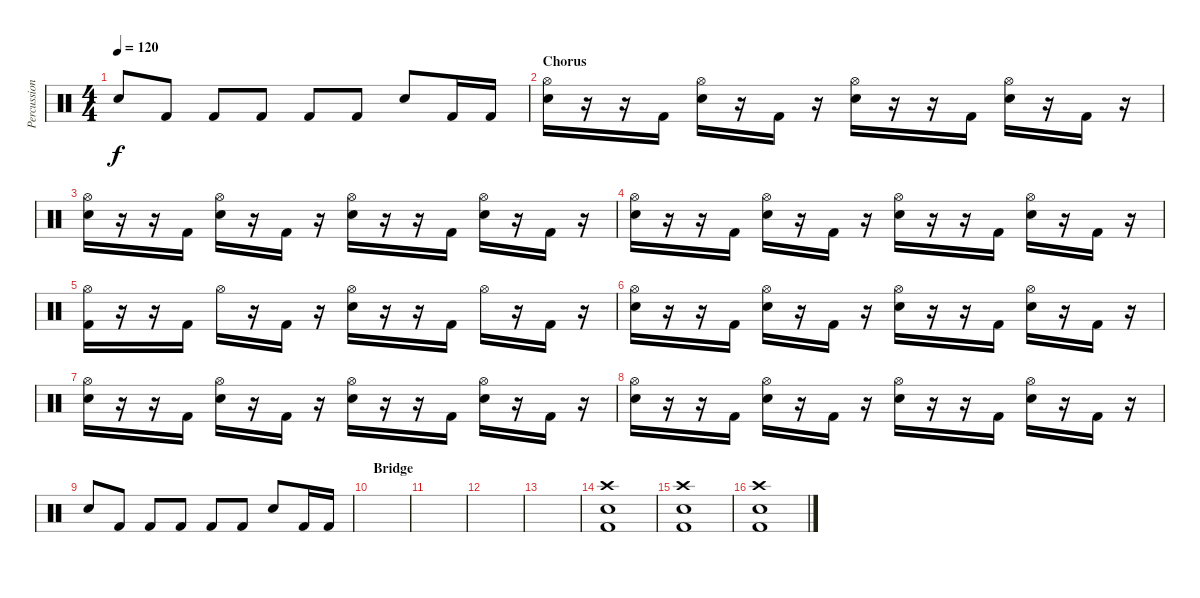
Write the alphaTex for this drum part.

\track ("Percussion" "Percussion") {instrument percussion}
\staff {score}
\articulation defaults
\ts (4 4)
\tempo 120
\clef neutral
\ks c "Electric Snare (hit)".8{dy f} "Kick (hit) 2".8 "Kick (hit) 2".8 "Kick (hit) 2".8 "Kick (hit) 2".8 "Kick (hit) 2".8 "Electric Snare (hit)".8 "Kick (hit) 2".16 "Kick (hit) 2".16
|
\section ("" "Chorus")
("Hi-Hat (open)" "Electric Snare (hit)").16 r.16 r.16 "Kick (hit) 2".16 ("Hi-Hat (open)" "Electric Snare (hit)").16 r.16 "Kick (hit) 2".16 r.16 ("Hi-Hat (open)" "Electric Snare (hit)").16 r.16 r.16 "Kick (hit) 2".16 ("Hi-Hat (open)" "Electric Snare (hit)").16 r.16 "Kick (hit) 2".16 r.16 |
("Hi-Hat (open)" "Electric Snare (hit)").16 r.16 r.16 "Kick (hit) 2".16 ("Hi-Hat (open)" "Electric Snare (hit)").16 r.16 "Kick (hit) 2".16 r.16 ("Hi-Hat (open)" "Electric Snare (hit)").16 r.16 r.16 "Kick (hit) 2".16 ("Hi-Hat (open)" "Electric Snare (hit)").16 r.16 "Kick (hit) 2".16 r.16 |
("Hi-Hat (open)" "Electric Snare (hit)").16 r.16 r.16 "Kick (hit) 2".16 ("Hi-Hat (open)" "Electric Snare (hit)").16 r.16 "Kick (hit) 2".16 r.16 ("Hi-Hat (open)" "Electric Snare (hit)").16 r.16 r.16 "Kick (hit) 2".16 ("Hi-Hat (open)" "Electric Snare (hit)").16 r.16 "Kick (hit) 2".16 r.16 |
("Hi-Hat (open)" "Kick (hit) 2").16 r.16 r.16 "Kick (hit) 2".16 "Hi-Hat (open)".16 r.16 "Kick (hit) 2".16 r.16 ("Hi-Hat (open)" "Electric Snare (hit)").16 r.16 r.16 "Kick (hit) 2".16 "Hi-Hat (open)".16 r.16 "Kick (hit) 2".16 r.16 |
("Hi-Hat (open)" "Electric Snare (hit)").16 r.16 r.16 "Kick (hit) 2".16 ("Hi-Hat (open)" "Electric Snare (hit)").16 r.16 "Kick (hit) 2".16 r.16 ("Hi-Hat (open)" "Electric Snare (hit)").16 r.16 r.16 "Kick (hit) 2".16 ("Hi-Hat (open)" "Electric Snare (hit)").16 r.16 "Kick (hit) 2".16 r.16 |
("Hi-Hat (open)" "Electric Snare (hit)").16 r.16 r.16 "Kick (hit) 2".16 ("Hi-Hat (open)" "Electric Snare (hit)").16 r.16 "Kick (hit) 2".16 r.16 ("Hi-Hat (open)" "Electric Snare (hit)").16 r.16 r.16 "Kick (hit) 2".16 ("Hi-Hat (open)" "Electric Snare (hit)").16 r.16 "Kick (hit) 2".16 r.16 |
("Hi-Hat (open)" "Electric Snare (hit)").16 r.16 r.16 "Kick (hit) 2".16 ("Hi-Hat (open)" "Electric Snare (hit)").16 r.16 "Kick (hit) 2".16 r.16 ("Hi-Hat (open)" "Electric Snare (hit)").16 r.16 r.16 "Kick (hit) 2".16 ("Hi-Hat (open)" "Electric Snare (hit)").16 r.16 "Kick (hit) 2".16 r.16 |
"Electric Snare (hit)".8 "Kick (hit) 2".8 "Kick (hit) 2".8 "Kick (hit) 2".8 "Kick (hit) 2".8 "Kick (hit) 2".8 "Electric Snare (hit)".8 "Kick (hit) 2".16 "Kick (hit) 2".16 |
\section ("" "Bridge")
|
|
|
|
("Crash high (hit)" "Electric Snare (hit)" "Kick (hit) 2").1 |
("Crash high (hit)" "Electric Snare (hit)" "Kick (hit) 2").1 |
("Crash high (hit)" "Electric Snare (hit)" "Kick (hit) 2").1
